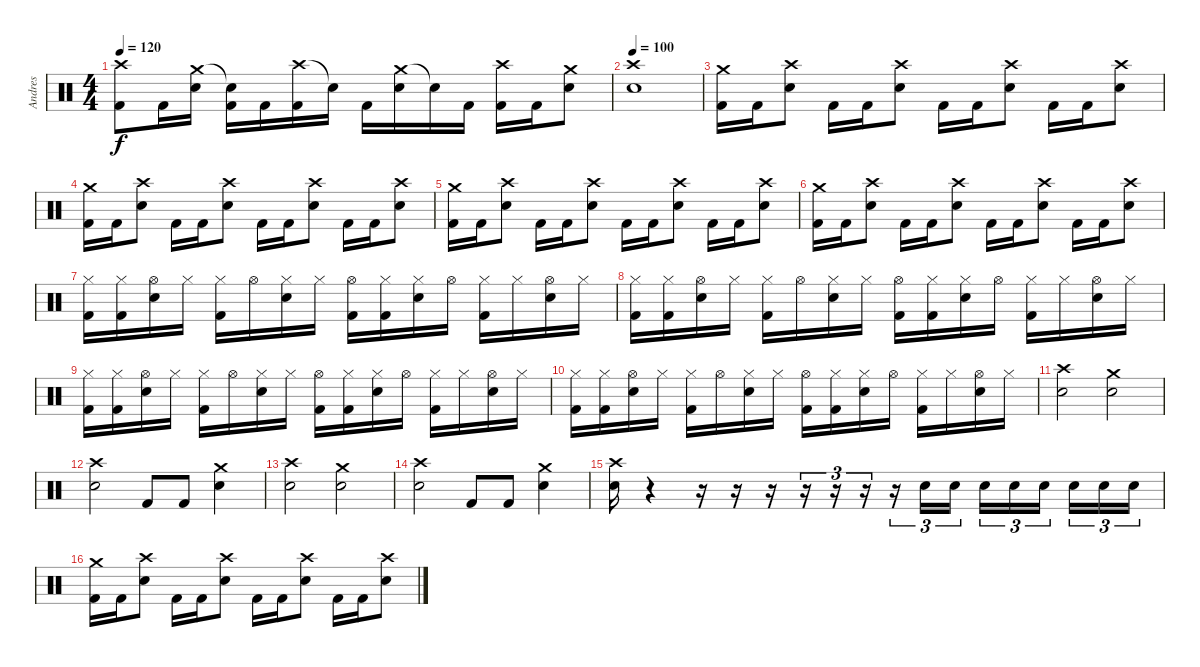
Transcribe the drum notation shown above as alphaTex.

\track ("Andres" "Andres") {instrument percussion}
\staff {score}
\articulation defaults
\ts (4 4)
\tempo 120
\clef neutral
\ks c
("Crash high (hit)" "Kick (hit) 2").8{dy f} "Kick (hit) 2".16 ("Crash medium (hit)" "Electric Snare (hit)").16 ("Snare (hit)"{t} "Kick (hit) 2").16 "Kick (hit) 2".16 ("Crash high (hit)" "Kick (hit) 2").16 "Snare (hit)"{t}.16 "Kick (hit) 2".16 ("Crash medium (hit)" "Electric Snare (hit)").16 "Electric Snare (hit)"{t}.16 "Kick (hit) 2".16 ("Crash high (hit)" "Kick (hit) 2").16 "Kick (hit) 2".16 ("Crash medium (hit)" "Electric Snare (hit)").8 |
\tempo 100
("Crash high (hit)" "Electric Snare (hit)").1 |
("Crash medium (hit)" "Kick (hit) 2").16{volume 16} "Kick (hit) 2".16 ("Crash high (hit)" "Electric Snare (hit)").8 "Kick (hit) 2".16 "Kick (hit) 2".16 ("Crash high (hit)" "Electric Snare (hit)").8 "Kick (hit) 2".16 "Kick (hit) 2".16 ("Crash high (hit)" "Electric Snare (hit)").8 "Kick (hit) 2".16 "Kick (hit) 2".16 ("Crash high (hit)" "Electric Snare (hit)").8 |
("Crash medium (hit)" "Kick (hit) 2").16 "Kick (hit) 2".16 ("Crash high (hit)" "Electric Snare (hit)").8 "Kick (hit) 2".16 "Kick (hit) 2".16 ("Crash high (hit)" "Electric Snare (hit)").8 "Kick (hit) 2".16 "Kick (hit) 2".16 ("Crash high (hit)" "Electric Snare (hit)").8 "Kick (hit) 2".16 "Kick (hit) 2".16 ("Crash high (hit)" "Electric Snare (hit)").8 |
("Crash medium (hit)" "Kick (hit) 2").16 "Kick (hit) 2".16 ("Crash high (hit)" "Electric Snare (hit)").8 "Kick (hit) 2".16 "Kick (hit) 2".16 ("Crash high (hit)" "Electric Snare (hit)").8 "Kick (hit) 2".16 "Kick (hit) 2".16 ("Crash high (hit)" "Electric Snare (hit)").8 "Kick (hit) 2".16 "Kick (hit) 2".16 ("Crash high (hit)" "Electric Snare (hit)").8 |
("Crash medium (hit)" "Kick (hit) 2").16 "Kick (hit) 2".16 ("Crash high (hit)" "Electric Snare (hit)").8 "Kick (hit) 2".16 "Kick (hit) 2".16 ("Crash high (hit)" "Electric Snare (hit)").8 "Kick (hit) 2".16 "Kick (hit) 2".16 ("Crash high (hit)" "Electric Snare (hit)").8 "Kick (hit) 2".16 "Kick (hit) 2".16 ("Crash high (hit)" "Electric Snare (hit)").8 |
("Hi-Hat (closed)" "Kick (hit) 2").16 ("Hi-Hat (closed)" "Kick (hit) 2").16 ("Hi-Hat (open)" "Electric Snare (hit)").16 "Hi-Hat (closed)".16 ("Hi-Hat (closed)" "Kick (hit) 2").16 "Hi-Hat (open)".16 ("Hi-Hat (closed)" "Electric Snare (hit)").16 "Hi-Hat (closed)".16 ("Hi-Hat (open)" "Kick (hit) 2").16 ("Hi-Hat (closed)" "Kick (hit) 2").16 ("Hi-Hat (closed)" "Electric Snare (hit)").16 "Hi-Hat (open)".16 ("Hi-Hat (closed)" "Kick (hit) 2").16 "Hi-Hat (closed)".16 ("Hi-Hat (open)" "Electric Snare (hit)").16 "Hi-Hat (closed)".16 |
("Hi-Hat (closed)" "Kick (hit) 2").16 ("Hi-Hat (closed)" "Kick (hit) 2").16 ("Hi-Hat (open)" "Electric Snare (hit)").16 "Hi-Hat (closed)".16 ("Hi-Hat (closed)" "Kick (hit) 2").16 "Hi-Hat (open)".16 ("Hi-Hat (closed)" "Electric Snare (hit)").16 "Hi-Hat (closed)".16 ("Hi-Hat (open)" "Kick (hit) 2").16 ("Hi-Hat (closed)" "Kick (hit) 2").16 ("Hi-Hat (closed)" "Electric Snare (hit)").16 "Hi-Hat (open)".16 ("Hi-Hat (closed)" "Kick (hit) 2").16 "Hi-Hat (closed)".16 ("Hi-Hat (open)" "Electric Snare (hit)").16 "Hi-Hat (closed)".16 |
("Hi-Hat (closed)" "Kick (hit) 2").16 ("Hi-Hat (closed)" "Kick (hit) 2").16 ("Hi-Hat (open)" "Electric Snare (hit)").16 "Hi-Hat (closed)".16 ("Hi-Hat (closed)" "Kick (hit) 2").16 "Hi-Hat (open)".16 ("Hi-Hat (closed)" "Electric Snare (hit)").16 "Hi-Hat (closed)".16 ("Hi-Hat (open)" "Kick (hit) 2").16 ("Hi-Hat (closed)" "Kick (hit) 2").16 ("Hi-Hat (closed)" "Electric Snare (hit)").16 "Hi-Hat (open)".16 ("Hi-Hat (closed)" "Kick (hit) 2").16 "Hi-Hat (closed)".16 ("Hi-Hat (open)" "Electric Snare (hit)").16 "Hi-Hat (closed)".16 |
("Hi-Hat (closed)" "Kick (hit) 2").16 ("Hi-Hat (closed)" "Kick (hit) 2").16 ("Hi-Hat (open)" "Electric Snare (hit)").16 "Hi-Hat (closed)".16 ("Hi-Hat (closed)" "Kick (hit) 2").16 "Hi-Hat (open)".16 ("Hi-Hat (closed)" "Electric Snare (hit)").16 "Hi-Hat (closed)".16 ("Hi-Hat (open)" "Kick (hit) 2").16 ("Hi-Hat (closed)" "Kick (hit) 2").16 ("Hi-Hat (closed)" "Electric Snare (hit)").16 "Hi-Hat (open)".16 ("Hi-Hat (closed)" "Kick (hit) 2").16 "Hi-Hat (closed)".16 ("Hi-Hat (open)" "Electric Snare (hit)").16 "Hi-Hat (closed)".16 |
("Crash high (hit)" "Electric Snare (hit)").2 ("Crash medium (hit)" "Electric Snare (hit)").2 |
("Crash high (hit)" "Electric Snare (hit)").2 "Kick (hit) 2".8 "Kick (hit) 2".8 ("Crash medium (hit)" "Electric Snare (hit)").4 |
("Crash high (hit)" "Electric Snare (hit)").2 ("Crash medium (hit)" "Electric Snare (hit)").2 |
("Crash high (hit)" "Electric Snare (hit)").2 "Kick (hit) 2".8 "Kick (hit) 2".8 ("Crash medium (hit)" "Electric Snare (hit)").4 |
("Crash high (hit)" "Electric Snare (hit)").16 r.4 r.16 r.16 r.16 r.16{tu (3 2)} r.16{tu (3 2)} r.16{tu (3 2)} r.16{tu (3 2)} "Electric Snare (hit)".16{tu (3 2)} "Electric Snare (hit)".16{tu (3 2)} "Electric Snare (hit)".16{tu (3 2)} "Electric Snare (hit)".16{tu (3 2)} "Electric Snare (hit)".16{tu (3 2)} "Electric Snare (hit)".16{tu (3 2)} "Electric Snare (hit)".16{tu (3 2)} "Electric Snare (hit)".16{tu (3 2)} |
("Crash medium (hit)" "Kick (hit) 2").16 "Kick (hit) 2".16 ("Crash high (hit)" "Electric Snare (hit)").8 "Kick (hit) 2".16 "Kick (hit) 2".16 ("Crash high (hit)" "Electric Snare (hit)").8 "Kick (hit) 2".16 "Kick (hit) 2".16 ("Crash high (hit)" "Electric Snare (hit)").8 "Kick (hit) 2".16 "Kick (hit) 2".16 ("Crash high (hit)" "Electric Snare (hit)").8
